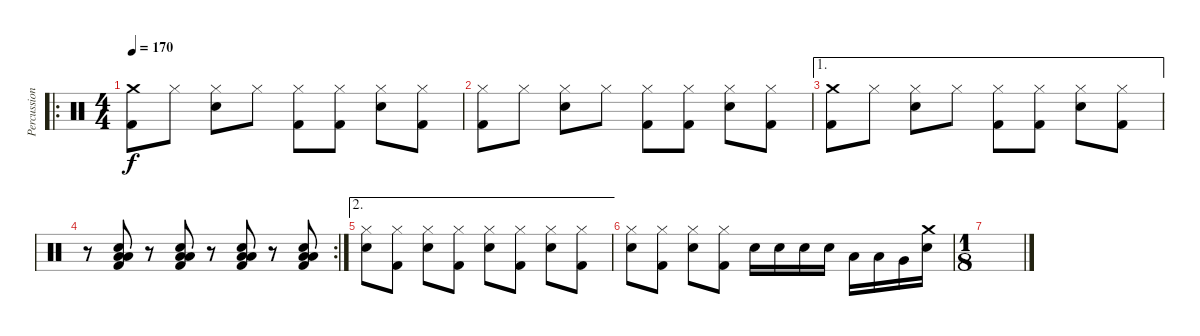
\track ("Percussions" "Percussion") {instrument percussion}
\staff {score}
\articulation defaults
\ro
\ts (4 4)
\tempo 170
\clef neutral
\ks c
("Crash medium (hit)" "Kick (hit) 2").8{dy f} "Hi-Hat (closed)".8 ("Hi-Hat (closed)" "Snare (hit) 2").8 "Hi-Hat (closed)".8 ("Hi-Hat (closed)" "Kick (hit) 2").8 ("Hi-Hat (closed)" "Kick (hit) 2").8 ("Hi-Hat (closed)" "Snare (hit) 2").8 ("Hi-Hat (closed)" "Kick (hit) 2").8 |
("Hi-Hat (closed)" "Kick (hit) 2").8 "Hi-Hat (closed)".8 ("Hi-Hat (closed)" "Snare (hit) 2").8 "Hi-Hat (closed)".8 ("Hi-Hat (closed)" "Kick (hit) 2").8 ("Hi-Hat (closed)" "Kick (hit) 2").8 ("Hi-Hat (closed)" "Snare (hit) 2").8 ("Hi-Hat (closed)" "Kick (hit) 2").8 |
\ae 1
("Crash medium (hit)" "Kick (hit) 2").8 "Hi-Hat (closed)".8 ("Hi-Hat (closed)" "Snare (hit) 2").8 "Hi-Hat (closed)".8 ("Hi-Hat (closed)" "Kick (hit) 2").8 ("Hi-Hat (closed)" "Kick (hit) 2").8 ("Hi-Hat (closed)" "Snare (hit) 2").8 ("Hi-Hat (closed)" "Kick (hit) 2").8 |
\rc 2
r.8 ("Low Floor Tom (hit)" "Low Tom (hit)" "Snare (hit) 2" "Kick (hit) 2").8 r.8 ("Low Floor Tom (hit)" "Low Tom (hit)" "Snare (hit) 2" "Kick (hit) 2").8 r.8 ("Low Floor Tom (hit)" "Low Tom (hit)" "Snare (hit) 2" "Kick (hit) 2").8 r.8 ("Low Floor Tom (hit)" "Low Tom (hit)" "Snare (hit) 2" "Kick (hit) 2").8 |
\ae 2
("Hi-Hat (closed)" "Snare (hit) 2").8 ("Hi-Hat (closed)" "Kick (hit) 2").8 ("Hi-Hat (closed)" "Snare (hit) 2").8 ("Hi-Hat (closed)" "Kick (hit) 2").8 ("Hi-Hat (closed)" "Snare (hit) 2").8 ("Hi-Hat (closed)" "Kick (hit) 2").8 ("Hi-Hat (closed)" "Snare (hit) 2").8 ("Hi-Hat (closed)" "Kick (hit) 2").8 |
("Hi-Hat (closed)" "Snare (hit) 2").8 ("Hi-Hat (closed)" "Kick (hit) 2").8 ("Hi-Hat (closed)" "Snare (hit) 2").8 ("Hi-Hat (closed)" "Kick (hit) 2").8 "Snare (hit) 2".16 "Snare (hit) 2".16 "Snare (hit) 2".16 "Snare (hit) 2".16 "Low Tom (hit)".16 "Low Tom (hit)".16 "Very Low Tom (hit)".16 ("Crash medium (hit)" "Snare (hit) 2").16 |
\ts (1 8)
